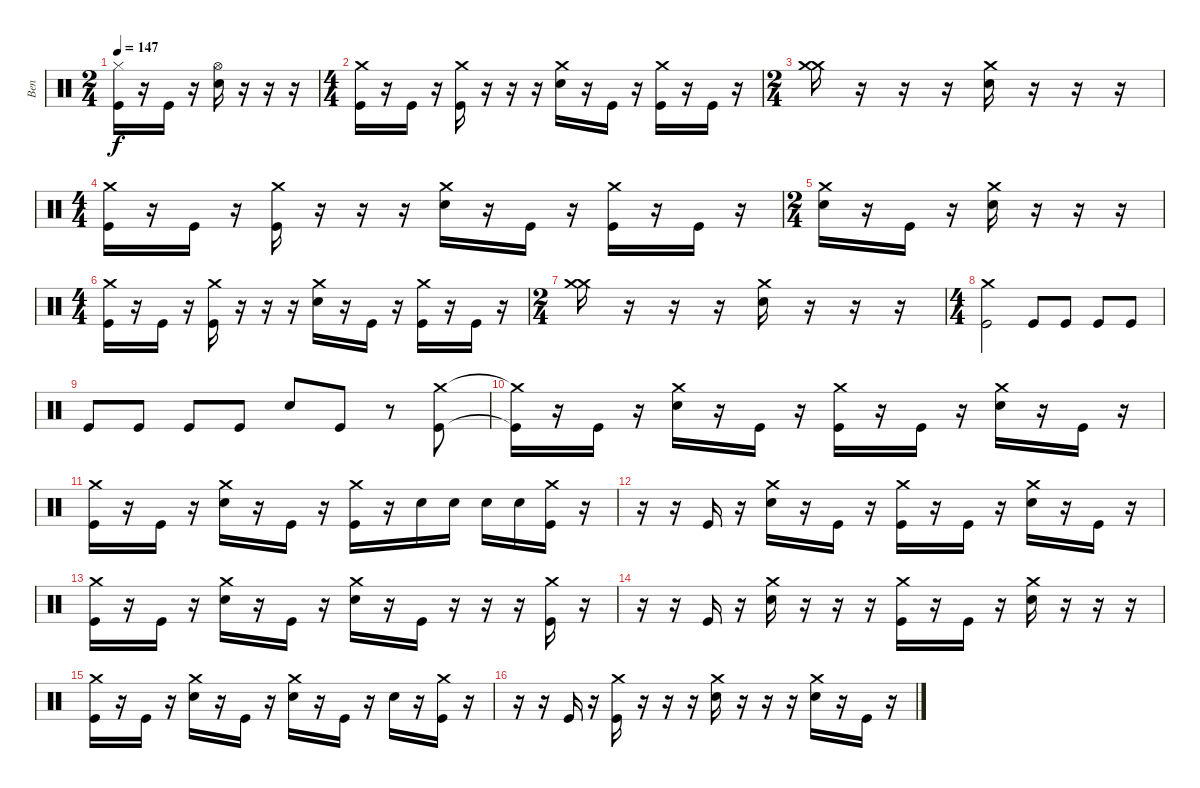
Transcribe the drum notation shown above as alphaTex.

\track ("Ben" "Ben") {instrument percussion}
\staff {score}
\articulation defaults
\ts (2 4)
\tempo 147
\clef neutral
\ks c
("Hi-Hat (closed)" "Kick (hit)").16{dy f} r.16 "Kick (hit)".16 r.16 ("Hi-Hat (open)" "Electric Snare (hit)").16 r.16 r.16 r.16 |
\ts (4 4)
("Crash medium (hit)" "Kick (hit)").16 r.16 "Kick (hit)".16 r.16 ("Crash medium (hit)" "Kick (hit)").16 r.16 r.16 r.16 ("Crash medium (hit)" "Electric Snare (hit)").16 r.16 "Kick (hit)".16 r.16 ("Crash medium (hit)" "Kick (hit)").16 r.16 "Kick (hit)".16 r.16 |
\ts (2 4)
("Crash medium (hit)" "Crash medium (hit)").16 r.16 r.16 r.16 ("Crash medium (hit)" "Electric Snare (hit)").16 r.16 r.16 r.16 |
\ts (4 4)
("Crash medium (hit)" "Kick (hit)").16 r.16 "Kick (hit)".16 r.16 ("Crash medium (hit)" "Kick (hit)").16 r.16 r.16 r.16 ("Crash medium (hit)" "Electric Snare (hit)").16 r.16 "Kick (hit)".16 r.16 ("Crash medium (hit)" "Kick (hit)").16 r.16 "Kick (hit)".16 r.16 |
\ts (2 4)
("Crash medium (hit)" "Electric Snare (hit)").16 r.16 "Kick (hit)".16 r.16 ("Crash medium (hit)" "Electric Snare (hit)").16 r.16 r.16 r.16 |
\ts (4 4)
("Crash medium (hit)" "Kick (hit)").16 r.16 "Kick (hit)".16 r.16 ("Crash medium (hit)" "Kick (hit)").16 r.16 r.16 r.16 ("Crash medium (hit)" "Electric Snare (hit)").16 r.16 "Kick (hit)".16 r.16 ("Crash medium (hit)" "Kick (hit)").16 r.16 "Kick (hit)".16 r.16 |
\ts (2 4)
("Crash medium (hit)" "Crash medium (hit)").16 r.16 r.16 r.16 ("Crash medium (hit)" "Electric Snare (hit)").16 r.16 r.16 r.16 |
\ts (4 4)
("Crash medium (hit)" "Kick (hit)").2 "Kick (hit)".8{volume 8} "Kick (hit)".8 "Kick (hit)".8 "Kick (hit)".8 |
"Kick (hit)".8{volume 13} "Kick (hit)".8 "Kick (hit)".8 "Kick (hit)".8 "Electric Snare (hit)".8 "Kick (hit)".8 r.8 ("Crash medium (hit)" "Kick (hit)").8 |
("Crash medium (hit)"{t} "Kick (hit)"{t}).16 r.16 "Kick (hit)".16 r.16 ("Crash medium (hit)" "Electric Snare (hit)").16 r.16 "Kick (hit)".16 r.16 ("Crash medium (hit)" "Kick (hit)").16 r.16 "Kick (hit)".16 r.16 ("Crash medium (hit)" "Electric Snare (hit)").16 r.16 "Kick (hit)".16 r.16 |
("Crash medium (hit)" "Kick (hit)").16 r.16 "Kick (hit)".16 r.16 ("Crash medium (hit)" "Electric Snare (hit)").16 r.16 "Kick (hit)".16 r.16 ("Crash medium (hit)" "Kick (hit)").16 r.16 "Electric Snare (hit)".16 "Electric Snare (hit)".16 "Electric Snare (hit)".16 "Electric Snare (hit)".16 ("Crash medium (hit)" "Kick (hit)").16 r.16 |
r.16 r.16 "Kick (hit)".16 r.16 ("Crash medium (hit)" "Electric Snare (hit)").16 r.16 "Kick (hit)".16 r.16 ("Crash medium (hit)" "Kick (hit)").16 r.16 "Kick (hit)".16 r.16 ("Crash medium (hit)" "Electric Snare (hit)").16 r.16 "Kick (hit)".16 r.16 |
("Crash medium (hit)" "Kick (hit)").16 r.16 "Kick (hit)".16 r.16 ("Crash medium (hit)" "Electric Snare (hit)").16 r.16 "Kick (hit)".16 r.16 ("Crash medium (hit)" "Electric Snare (hit)").16 r.16 "Kick (hit)".16 r.16 r.16 r.16 ("Crash medium (hit)" "Kick (hit)").16 r.16 |
r.16 r.16 "Kick (hit)".16 r.16 ("Crash medium (hit)" "Electric Snare (hit)").16 r.16 r.16 r.16 ("Crash medium (hit)" "Kick (hit)").16 r.16 "Kick (hit)".16 r.16 ("Crash medium (hit)" "Electric Snare (hit)").16 r.16 r.16 r.16 |
("Crash medium (hit)" "Kick (hit)").16 r.16 "Kick (hit)".16 r.16 ("Crash medium (hit)" "Electric Snare (hit)").16 r.16 "Kick (hit)".16 r.16 ("Crash medium (hit)" "Electric Snare (hit)").16 r.16 "Kick (hit)".16 r.16 "Electric Snare (hit)".16 r.16 ("Crash medium (hit)" "Kick (hit)").16 r.16 |
r.16 r.16 "Kick (hit)".16 r.16 ("Crash medium (hit)" "Kick (hit)").16 r.16 r.16 r.16 ("Crash medium (hit)" "Electric Snare (hit)").16 r.16 r.16 r.16 ("Crash medium (hit)" "Electric Snare (hit)").16 r.16 "Kick (hit)".16 r.16
